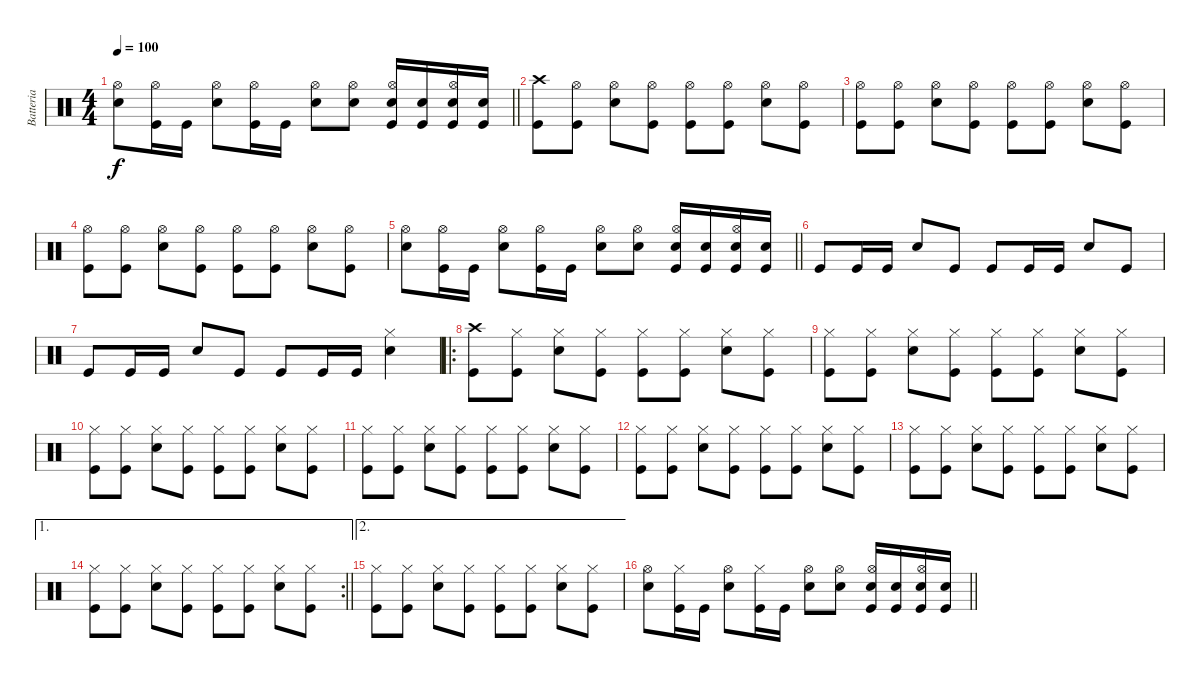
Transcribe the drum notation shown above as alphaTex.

\track ("Batteria" "Batteria") {instrument percussion}
\staff {score}
\articulation defaults
\ts (4 4)
\tempo 100
\clef neutral
\barLineRight lightlight
\ks c
("Snare (hit) 2" "Hi-Hat (open)").8{dy f} ("Kick (hit)" "Hi-Hat (open)").16 "Kick (hit)".16 ("Snare (hit) 2" "Hi-Hat (open)").8 ("Kick (hit)" "Hi-Hat (open)").16 "Kick (hit)".16 ("Snare (hit) 2" "Hi-Hat (open)").8 ("Snare (hit) 2" "Hi-Hat (open)").8 ("Kick (hit)" "Hi-Hat (open)" "Snare (hit) 2").16 ("Kick (hit)" "Snare (hit) 2").16 ("Kick (hit)" "Hi-Hat (open)" "Snare (hit) 2").16 ("Kick (hit)" "Snare (hit) 2").16 |
("Kick (hit)" "Crash high (hit)").8 ("Kick (hit)" "Hi-Hat (open)").8 ("Snare (hit) 2" "Hi-Hat (open)").8 ("Kick (hit)" "Hi-Hat (open)").8 ("Kick (hit)" "Hi-Hat (open)").8 ("Kick (hit)" "Hi-Hat (open)").8 ("Snare (hit) 2" "Hi-Hat (open)").8 ("Kick (hit)" "Hi-Hat (open)").8 |
("Kick (hit)" "Hi-Hat (open)").8 ("Kick (hit)" "Hi-Hat (open)").8 ("Snare (hit) 2" "Hi-Hat (open)").8 ("Kick (hit)" "Hi-Hat (open)").8 ("Kick (hit)" "Hi-Hat (open)").8 ("Kick (hit)" "Hi-Hat (open)").8 ("Snare (hit) 2" "Hi-Hat (open)").8 ("Kick (hit)" "Hi-Hat (open)").8 |
("Kick (hit)" "Hi-Hat (open)").8 ("Kick (hit)" "Hi-Hat (open)").8 ("Snare (hit) 2" "Hi-Hat (open)").8 ("Kick (hit)" "Hi-Hat (open)").8 ("Kick (hit)" "Hi-Hat (open)").8 ("Kick (hit)" "Hi-Hat (open)").8 ("Snare (hit) 2" "Hi-Hat (open)").8 ("Kick (hit)" "Hi-Hat (open)").8 |
\barLineRight lightlight
("Snare (hit) 2" "Hi-Hat (open)").8 ("Kick (hit)" "Hi-Hat (open)").16 "Kick (hit)".16 ("Snare (hit) 2" "Hi-Hat (open)").8 ("Kick (hit)" "Hi-Hat (open)").16 "Kick (hit)".16 ("Snare (hit) 2" "Hi-Hat (open)").8 ("Snare (hit) 2" "Hi-Hat (open)").8 ("Kick (hit)" "Hi-Hat (open)" "Snare (hit) 2").16 ("Kick (hit)" "Snare (hit) 2").16 ("Kick (hit)" "Hi-Hat (open)" "Snare (hit) 2").16 ("Kick (hit)" "Snare (hit) 2").16 |
"Kick (hit)".8 "Kick (hit)".16 "Kick (hit)".16 "Snare (hit) 2".8 "Kick (hit)".8 "Kick (hit)".8 "Kick (hit)".16 "Kick (hit)".16 "Snare (hit) 2".8 "Kick (hit)".8 |
"Kick (hit)".8 "Kick (hit)".16 "Kick (hit)".16 "Snare (hit) 2".8 "Kick (hit)".8 "Kick (hit)".8 "Kick (hit)".16 "Kick (hit)".16 ("Snare (hit) 2" "Hi-Hat (closed)").4 |
\ro
("Kick (hit)" "Crash high (hit)").8 ("Kick (hit)" "Hi-Hat (closed)").8 ("Snare (hit) 2" "Hi-Hat (closed)").8 ("Kick (hit)" "Hi-Hat (closed)").8 ("Kick (hit)" "Hi-Hat (closed)").8 ("Kick (hit)" "Hi-Hat (closed)").8 ("Snare (hit) 2" "Hi-Hat (closed)").8 ("Kick (hit)" "Hi-Hat (closed)").8 |
("Kick (hit)" "Hi-Hat (closed)").8 ("Kick (hit)" "Hi-Hat (closed)").8 ("Snare (hit) 2" "Hi-Hat (closed)").8 ("Kick (hit)" "Hi-Hat (closed)").8 ("Kick (hit)" "Hi-Hat (closed)").8 ("Kick (hit)" "Hi-Hat (closed)").8 ("Snare (hit) 2" "Hi-Hat (closed)").8 ("Kick (hit)" "Hi-Hat (closed)").8 |
("Kick (hit)" "Hi-Hat (closed)").8 ("Kick (hit)" "Hi-Hat (closed)").8 ("Snare (hit) 2" "Hi-Hat (closed)").8 ("Kick (hit)" "Hi-Hat (closed)").8 ("Kick (hit)" "Hi-Hat (closed)").8 ("Kick (hit)" "Hi-Hat (closed)").8 ("Snare (hit) 2" "Hi-Hat (closed)").8 ("Kick (hit)" "Hi-Hat (closed)").8 |
("Kick (hit)" "Hi-Hat (closed)").8 ("Kick (hit)" "Hi-Hat (closed)").8 ("Snare (hit) 2" "Hi-Hat (closed)").8 ("Kick (hit)" "Hi-Hat (closed)").8 ("Kick (hit)" "Hi-Hat (closed)").8 ("Kick (hit)" "Hi-Hat (closed)").8 ("Snare (hit) 2" "Hi-Hat (closed)").8 ("Kick (hit)" "Hi-Hat (closed)").8 |
("Kick (hit)" "Hi-Hat (closed)").8 ("Kick (hit)" "Hi-Hat (closed)").8 ("Snare (hit) 2" "Hi-Hat (closed)").8 ("Kick (hit)" "Hi-Hat (closed)").8 ("Kick (hit)" "Hi-Hat (closed)").8 ("Kick (hit)" "Hi-Hat (closed)").8 ("Snare (hit) 2" "Hi-Hat (closed)").8 ("Kick (hit)" "Hi-Hat (closed)").8 |
("Kick (hit)" "Hi-Hat (closed)").8 ("Kick (hit)" "Hi-Hat (closed)").8 ("Snare (hit) 2" "Hi-Hat (closed)").8 ("Kick (hit)" "Hi-Hat (closed)").8 ("Kick (hit)" "Hi-Hat (closed)").8 ("Kick (hit)" "Hi-Hat (closed)").8 ("Snare (hit) 2" "Hi-Hat (closed)").8 ("Kick (hit)" "Hi-Hat (closed)").8 |
\ae 1
\rc 2
\barLineRight lightlight
("Kick (hit)" "Hi-Hat (closed)").8 ("Kick (hit)" "Hi-Hat (closed)").8 ("Snare (hit) 2" "Hi-Hat (closed)").8 ("Kick (hit)" "Hi-Hat (closed)").8 ("Kick (hit)" "Hi-Hat (closed)").8 ("Kick (hit)" "Hi-Hat (closed)").8 ("Snare (hit) 2" "Hi-Hat (closed)").8 ("Kick (hit)" "Hi-Hat (closed)").8 |
\ae 2
("Kick (hit)" "Hi-Hat (closed)").8 ("Kick (hit)" "Hi-Hat (closed)").8 ("Snare (hit) 2" "Hi-Hat (closed)").8 ("Kick (hit)" "Hi-Hat (closed)").8 ("Kick (hit)" "Hi-Hat (closed)").8 ("Kick (hit)" "Hi-Hat (closed)").8 ("Snare (hit) 2" "Hi-Hat (closed)").8 ("Kick (hit)" "Hi-Hat (closed)").8 |
\barLineRight lightlight
("Snare (hit) 2" "Hi-Hat (open)").8 ("Kick (hit)" "Hi-Hat (closed)").16 "Kick (hit)".16 ("Snare (hit) 2" "Hi-Hat (open)").8 ("Kick (hit)" "Hi-Hat (closed)").16 "Kick (hit)".16 ("Snare (hit) 2" "Hi-Hat (open)").8 ("Snare (hit) 2" "Hi-Hat (open)").8 ("Kick (hit)" "Hi-Hat (open)" "Snare (hit) 2").16 ("Kick (hit)" "Snare (hit) 2").16 ("Kick (hit)" "Hi-Hat (open)" "Snare (hit) 2").16 ("Kick (hit)" "Snare (hit) 2").16
